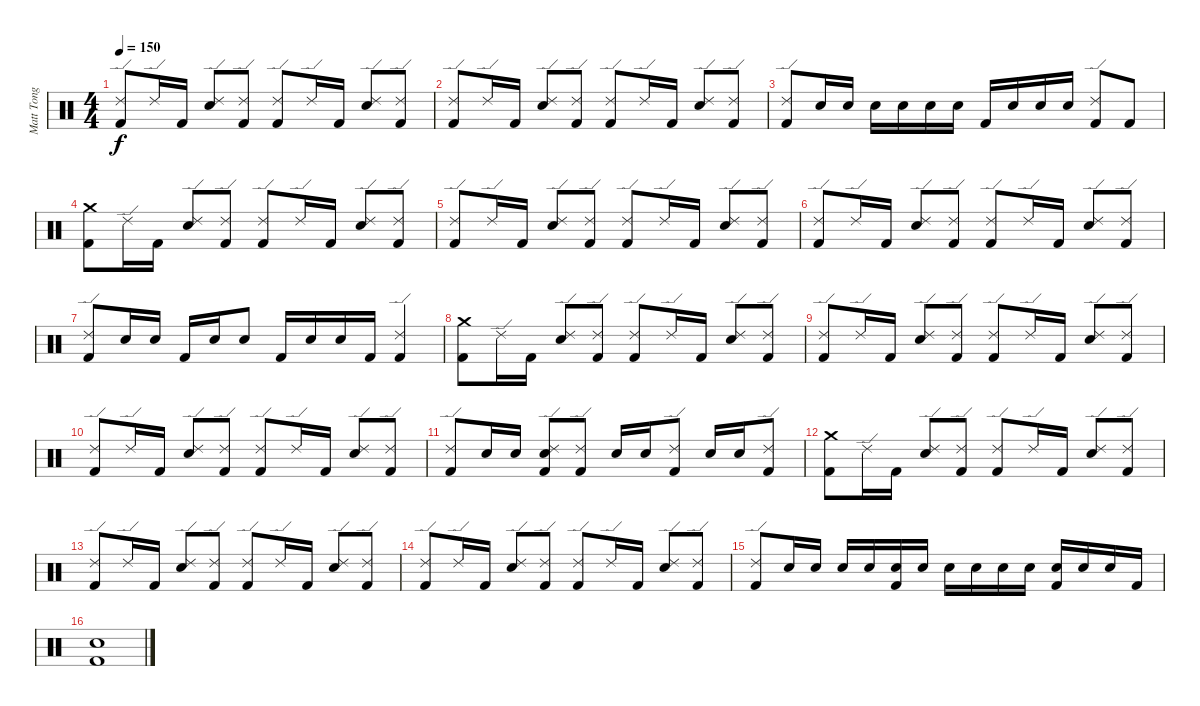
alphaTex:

\track ("Matt Tong" "Matt Tong") {instrument percussion}
\staff {score}
\articulation defaults
\ts (4 4)
\tempo 150
\clef neutral
\ks c
("Ride (edge) 2" "Kick (hit) 2").8{dy f} "Ride (edge) 2".16 "Kick (hit) 2".16 ("Ride (edge) 2" "Electric Snare (hit)").8 ("Ride (edge) 2" "Kick (hit) 2").8 ("Ride (edge) 2" "Kick (hit) 2").8 "Ride (edge) 2".16 "Kick (hit) 2".16 ("Ride (edge) 2" "Electric Snare (hit)").8 ("Ride (edge) 2" "Kick (hit) 2").8 |
("Ride (edge) 2" "Kick (hit) 2").8 "Ride (edge) 2".16 "Kick (hit) 2".16 ("Ride (edge) 2" "Electric Snare (hit)").8 ("Ride (edge) 2" "Kick (hit) 2").8 ("Ride (edge) 2" "Kick (hit) 2").8 "Ride (edge) 2".16 "Kick (hit) 2".16 ("Ride (edge) 2" "Electric Snare (hit)").8 ("Ride (edge) 2" "Kick (hit) 2").8 |
("Ride (edge) 2" "Kick (hit) 2").8 "Electric Snare (hit)".16 "Electric Snare (hit)".16 "Electric Snare (hit)".16 "Electric Snare (hit)".16 "Electric Snare (hit)".16 "Electric Snare (hit)".16 "Kick (hit) 2".16 "Electric Snare (hit)".16 "Electric Snare (hit)".16 "Electric Snare (hit)".16 ("Ride (edge) 2" "Kick (hit) 2").8 "Kick (hit) 2".8 |
("Crash medium (hit)" "Kick (hit) 2").8 "Ride (edge) 2".16 "Kick (hit) 2".16 ("Ride (edge) 2" "Electric Snare (hit)").8 ("Ride (edge) 2" "Kick (hit) 2").8 ("Ride (edge) 2" "Kick (hit) 2").8 "Ride (edge) 2".16 "Kick (hit) 2".16 ("Ride (edge) 2" "Electric Snare (hit)").8 ("Ride (edge) 2" "Kick (hit) 2").8 |
("Ride (edge) 2" "Kick (hit) 2").8 "Ride (edge) 2".16 "Kick (hit) 2".16 ("Ride (edge) 2" "Electric Snare (hit)").8 ("Ride (edge) 2" "Kick (hit) 2").8 ("Ride (edge) 2" "Kick (hit) 2").8 "Ride (edge) 2".16 "Kick (hit) 2".16 ("Ride (edge) 2" "Electric Snare (hit)").8 ("Ride (edge) 2" "Kick (hit) 2").8 |
("Ride (edge) 2" "Kick (hit) 2").8 "Ride (edge) 2".16 "Kick (hit) 2".16 ("Ride (edge) 2" "Electric Snare (hit)").8 ("Ride (edge) 2" "Kick (hit) 2").8 ("Ride (edge) 2" "Kick (hit) 2").8 "Ride (edge) 2".16 "Kick (hit) 2".16 ("Ride (edge) 2" "Electric Snare (hit)").8 ("Ride (edge) 2" "Kick (hit) 2").8 |
("Ride (edge) 2" "Kick (hit) 2").8 "Electric Snare (hit)".16 "Electric Snare (hit)".16 "Kick (hit) 2".16 "Electric Snare (hit)".16 "Electric Snare (hit)".8 "Kick (hit) 2".16 "Electric Snare (hit)".16 "Electric Snare (hit)".16 "Kick (hit) 2".16 ("Ride (edge) 2" "Kick (hit) 2").4 |
("Crash medium (hit)" "Kick (hit) 2").8 "Ride (edge) 2".16 "Kick (hit) 2".16 ("Ride (edge) 2" "Electric Snare (hit)").8 ("Ride (edge) 2" "Kick (hit) 2").8 ("Ride (edge) 2" "Kick (hit) 2").8 "Ride (edge) 2".16 "Kick (hit) 2".16 ("Ride (edge) 2" "Electric Snare (hit)").8 ("Ride (edge) 2" "Kick (hit) 2").8 |
("Ride (edge) 2" "Kick (hit) 2").8 "Ride (edge) 2".16 "Kick (hit) 2".16 ("Ride (edge) 2" "Electric Snare (hit)").8 ("Ride (edge) 2" "Kick (hit) 2").8 ("Ride (edge) 2" "Kick (hit) 2").8 "Ride (edge) 2".16 "Kick (hit) 2".16 ("Ride (edge) 2" "Electric Snare (hit)").8 ("Ride (edge) 2" "Kick (hit) 2").8 |
("Ride (edge) 2" "Kick (hit) 2").8 "Ride (edge) 2".16 "Kick (hit) 2".16 ("Ride (edge) 2" "Electric Snare (hit)").8 ("Ride (edge) 2" "Kick (hit) 2").8 ("Ride (edge) 2" "Kick (hit) 2").8 "Ride (edge) 2".16 "Kick (hit) 2".16 ("Ride (edge) 2" "Electric Snare (hit)").8 ("Ride (edge) 2" "Kick (hit) 2").8 |
("Ride (edge) 2" "Kick (hit) 2").8 "Electric Snare (hit)".16 "Electric Snare (hit)".16 ("Ride (edge) 2" "Electric Snare (hit)" "Kick (hit) 2").8 ("Ride (edge) 2" "Kick (hit) 2").8 "Electric Snare (hit)".16 "Electric Snare (hit)".16 ("Ride (edge) 2" "Kick (hit) 2").8 "Electric Snare (hit)".16 "Electric Snare (hit)".16 ("Ride (edge) 2" "Kick (hit) 2").8 |
("Crash medium (hit)" "Kick (hit) 2").8 "Ride (edge) 2".16 "Kick (hit) 2".16 ("Ride (edge) 2" "Electric Snare (hit)").8 ("Ride (edge) 2" "Kick (hit) 2").8 ("Ride (edge) 2" "Kick (hit) 2").8 "Ride (edge) 2".16 "Kick (hit) 2".16 ("Ride (edge) 2" "Electric Snare (hit)").8 ("Ride (edge) 2" "Kick (hit) 2").8 |
("Ride (edge) 2" "Kick (hit) 2").8 "Ride (edge) 2".16 "Kick (hit) 2".16 ("Ride (edge) 2" "Electric Snare (hit)").8 ("Ride (edge) 2" "Kick (hit) 2").8 ("Ride (edge) 2" "Kick (hit) 2").8 "Ride (edge) 2".16 "Kick (hit) 2".16 ("Ride (edge) 2" "Electric Snare (hit)").8 ("Ride (edge) 2" "Kick (hit) 2").8 |
("Ride (edge) 2" "Kick (hit) 2").8 "Ride (edge) 2".16 "Kick (hit) 2".16 ("Ride (edge) 2" "Electric Snare (hit)").8 ("Ride (edge) 2" "Kick (hit) 2").8 ("Ride (edge) 2" "Kick (hit) 2").8 "Ride (edge) 2".16 "Kick (hit) 2".16 ("Ride (edge) 2" "Electric Snare (hit)").8 ("Ride (edge) 2" "Kick (hit) 2").8 |
("Ride (edge) 2" "Kick (hit) 2").8 "Electric Snare (hit)".16 "Electric Snare (hit)".16 "Electric Snare (hit)".16 "Electric Snare (hit)".16 ("Electric Snare (hit)" "Kick (hit) 2").16 "Electric Snare (hit)".16 "Electric Snare (hit)".16 "Electric Snare (hit)".16 "Electric Snare (hit)".16 "Electric Snare (hit)".16 ("Electric Snare (hit)" "Kick (hit) 2").16 "Electric Snare (hit)".16 "Electric Snare (hit)".16 "Kick (hit) 2".16 |
("Electric Snare (hit)" "Kick (hit) 2").1
